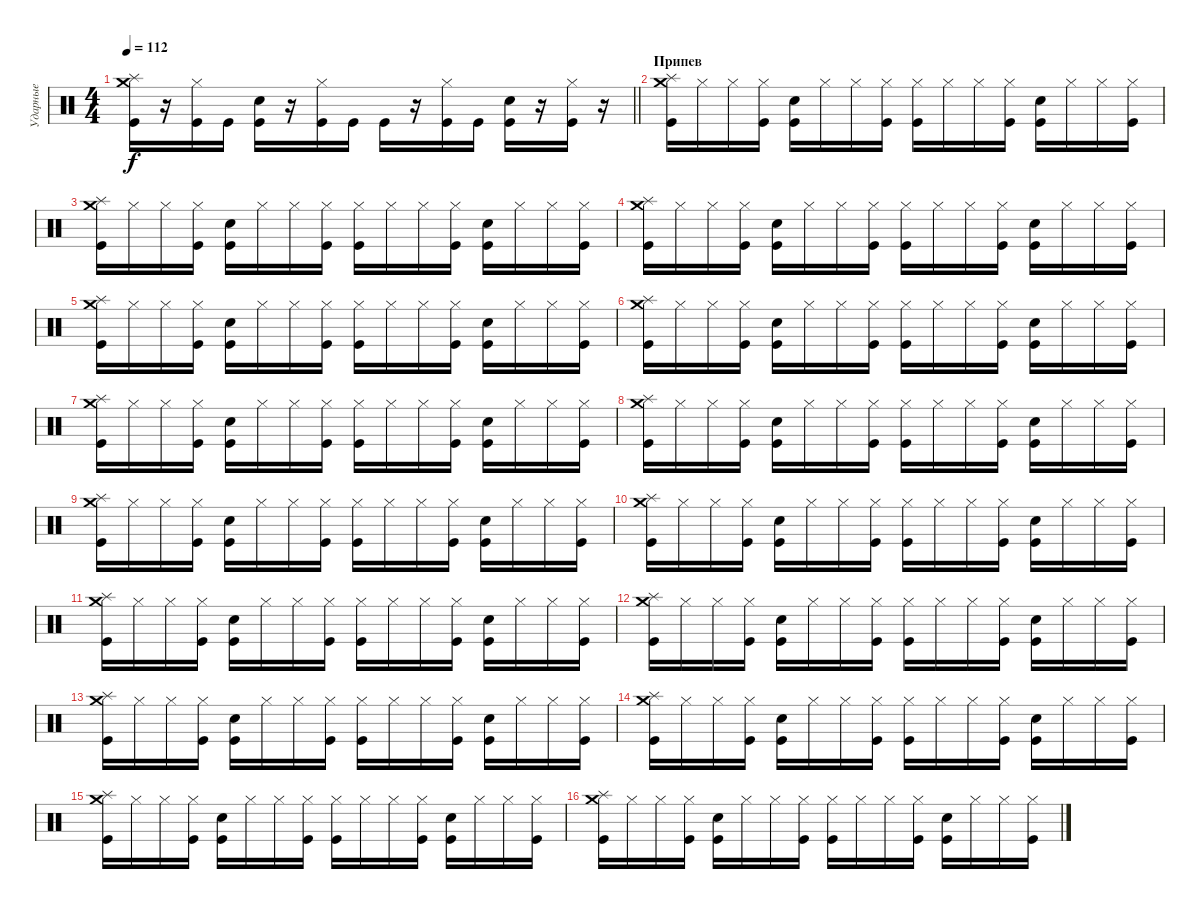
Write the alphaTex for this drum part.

\track ("Ударные" "Ударные") {instrument percussion}
\staff {score}
\articulation defaults
\ts (4 4)
\tempo 112
\clef neutral
\barLineRight lightlight
\ks c
("Splash (hit)" "Crash medium (hit)" "Kick (hit)").16{dy f} r.16 ("Hi-Hat (closed)" "Kick (hit)").16 "Kick (hit)".16 ("Snare (hit) 2" "Kick (hit)").16 r.16 ("Hi-Hat (closed)" "Kick (hit)").16 "Kick (hit)".16 "Kick (hit)".16 r.16 ("Hi-Hat (closed)" "Kick (hit)").16 "Kick (hit)".16 ("Snare (hit) 2" "Kick (hit)").16 r.16 ("Hi-Hat (closed)" "Kick (hit)").16 r.16 |
\section ("" "Припев")
("Splash (hit)" "Crash medium (hit)" "Kick (hit)").16 "Hi-Hat (closed)".16 "Hi-Hat (closed)".16 ("Hi-Hat (closed)" "Kick (hit)").16 ("Snare (hit) 2" "Kick (hit)").16 "Hi-Hat (closed)".16 "Hi-Hat (closed)".16 ("Hi-Hat (closed)" "Kick (hit)").16 ("Hi-Hat (closed)" "Kick (hit)").16 "Hi-Hat (closed)".16 "Hi-Hat (closed)".16 ("Hi-Hat (closed)" "Kick (hit)").16 ("Snare (hit) 2" "Kick (hit)").16 "Hi-Hat (closed)".16 "Hi-Hat (closed)".16 ("Hi-Hat (closed)" "Kick (hit)").16 |
("Splash (hit)" "Crash medium (hit)" "Kick (hit)").16 "Hi-Hat (closed)".16 "Hi-Hat (closed)".16 ("Hi-Hat (closed)" "Kick (hit)").16 ("Snare (hit) 2" "Kick (hit)").16 "Hi-Hat (closed)".16 "Hi-Hat (closed)".16 ("Hi-Hat (closed)" "Kick (hit)").16 ("Hi-Hat (closed)" "Kick (hit)").16 "Hi-Hat (closed)".16 "Hi-Hat (closed)".16 ("Hi-Hat (closed)" "Kick (hit)").16 ("Snare (hit) 2" "Kick (hit)").16 "Hi-Hat (closed)".16 "Hi-Hat (closed)".16 ("Hi-Hat (closed)" "Kick (hit)").16 |
("Splash (hit)" "Crash medium (hit)" "Kick (hit)").16 "Hi-Hat (closed)".16 "Hi-Hat (closed)".16 ("Hi-Hat (closed)" "Kick (hit)").16 ("Snare (hit) 2" "Kick (hit)").16 "Hi-Hat (closed)".16 "Hi-Hat (closed)".16 ("Hi-Hat (closed)" "Kick (hit)").16 ("Hi-Hat (closed)" "Kick (hit)").16 "Hi-Hat (closed)".16 "Hi-Hat (closed)".16 ("Hi-Hat (closed)" "Kick (hit)").16 ("Snare (hit) 2" "Kick (hit)").16 "Hi-Hat (closed)".16 "Hi-Hat (closed)".16 ("Hi-Hat (closed)" "Kick (hit)").16 |
("Splash (hit)" "Crash medium (hit)" "Kick (hit)").16 "Hi-Hat (closed)".16 "Hi-Hat (closed)".16 ("Hi-Hat (closed)" "Kick (hit)").16 ("Snare (hit) 2" "Kick (hit)").16 "Hi-Hat (closed)".16 "Hi-Hat (closed)".16 ("Hi-Hat (closed)" "Kick (hit)").16 ("Hi-Hat (closed)" "Kick (hit)").16 "Hi-Hat (closed)".16 "Hi-Hat (closed)".16 ("Hi-Hat (closed)" "Kick (hit)").16 ("Snare (hit) 2" "Kick (hit)").16 "Hi-Hat (closed)".16 "Hi-Hat (closed)".16 ("Hi-Hat (closed)" "Kick (hit)").16 |
("Splash (hit)" "Crash medium (hit)" "Kick (hit)").16 "Hi-Hat (closed)".16 "Hi-Hat (closed)".16 ("Hi-Hat (closed)" "Kick (hit)").16 ("Snare (hit) 2" "Kick (hit)").16 "Hi-Hat (closed)".16 "Hi-Hat (closed)".16 ("Hi-Hat (closed)" "Kick (hit)").16 ("Hi-Hat (closed)" "Kick (hit)").16 "Hi-Hat (closed)".16 "Hi-Hat (closed)".16 ("Hi-Hat (closed)" "Kick (hit)").16 ("Snare (hit) 2" "Kick (hit)").16 "Hi-Hat (closed)".16 "Hi-Hat (closed)".16 ("Hi-Hat (closed)" "Kick (hit)").16 |
("Splash (hit)" "Crash medium (hit)" "Kick (hit)").16 "Hi-Hat (closed)".16 "Hi-Hat (closed)".16 ("Hi-Hat (closed)" "Kick (hit)").16 ("Snare (hit) 2" "Kick (hit)").16 "Hi-Hat (closed)".16 "Hi-Hat (closed)".16 ("Hi-Hat (closed)" "Kick (hit)").16 ("Hi-Hat (closed)" "Kick (hit)").16 "Hi-Hat (closed)".16 "Hi-Hat (closed)".16 ("Hi-Hat (closed)" "Kick (hit)").16 ("Snare (hit) 2" "Kick (hit)").16 "Hi-Hat (closed)".16 "Hi-Hat (closed)".16 ("Hi-Hat (closed)" "Kick (hit)").16 |
("Splash (hit)" "Crash medium (hit)" "Kick (hit)").16 "Hi-Hat (closed)".16 "Hi-Hat (closed)".16 ("Hi-Hat (closed)" "Kick (hit)").16 ("Snare (hit) 2" "Kick (hit)").16 "Hi-Hat (closed)".16 "Hi-Hat (closed)".16 ("Hi-Hat (closed)" "Kick (hit)").16 ("Hi-Hat (closed)" "Kick (hit)").16 "Hi-Hat (closed)".16 "Hi-Hat (closed)".16 ("Hi-Hat (closed)" "Kick (hit)").16 ("Snare (hit) 2" "Kick (hit)").16 "Hi-Hat (closed)".16 "Hi-Hat (closed)".16 ("Hi-Hat (closed)" "Kick (hit)").16 |
("Splash (hit)" "Crash medium (hit)" "Kick (hit)").16 "Hi-Hat (closed)".16 "Hi-Hat (closed)".16 ("Hi-Hat (closed)" "Kick (hit)").16 ("Snare (hit) 2" "Kick (hit)").16 "Hi-Hat (closed)".16 "Hi-Hat (closed)".16 ("Hi-Hat (closed)" "Kick (hit)").16 ("Hi-Hat (closed)" "Kick (hit)").16 "Hi-Hat (closed)".16 "Hi-Hat (closed)".16 ("Hi-Hat (closed)" "Kick (hit)").16 ("Snare (hit) 2" "Kick (hit)").16 "Hi-Hat (closed)".16 "Hi-Hat (closed)".16 ("Hi-Hat (closed)" "Kick (hit)").16 |
("Splash (hit)" "Crash medium (hit)" "Kick (hit)").16 "Hi-Hat (closed)".16 "Hi-Hat (closed)".16 ("Hi-Hat (closed)" "Kick (hit)").16 ("Snare (hit) 2" "Kick (hit)").16 "Hi-Hat (closed)".16 "Hi-Hat (closed)".16 ("Hi-Hat (closed)" "Kick (hit)").16 ("Hi-Hat (closed)" "Kick (hit)").16 "Hi-Hat (closed)".16 "Hi-Hat (closed)".16 ("Hi-Hat (closed)" "Kick (hit)").16 ("Snare (hit) 2" "Kick (hit)").16 "Hi-Hat (closed)".16 "Hi-Hat (closed)".16 ("Hi-Hat (closed)" "Kick (hit)").16 |
("Splash (hit)" "Crash medium (hit)" "Kick (hit)").16 "Hi-Hat (closed)".16 "Hi-Hat (closed)".16 ("Hi-Hat (closed)" "Kick (hit)").16 ("Snare (hit) 2" "Kick (hit)").16 "Hi-Hat (closed)".16 "Hi-Hat (closed)".16 ("Hi-Hat (closed)" "Kick (hit)").16 ("Hi-Hat (closed)" "Kick (hit)").16 "Hi-Hat (closed)".16 "Hi-Hat (closed)".16 ("Hi-Hat (closed)" "Kick (hit)").16 ("Snare (hit) 2" "Kick (hit)").16 "Hi-Hat (closed)".16 "Hi-Hat (closed)".16 ("Hi-Hat (closed)" "Kick (hit)").16 |
("Splash (hit)" "Crash medium (hit)" "Kick (hit)").16 "Hi-Hat (closed)".16 "Hi-Hat (closed)".16 ("Hi-Hat (closed)" "Kick (hit)").16 ("Snare (hit) 2" "Kick (hit)").16 "Hi-Hat (closed)".16 "Hi-Hat (closed)".16 ("Hi-Hat (closed)" "Kick (hit)").16 ("Hi-Hat (closed)" "Kick (hit)").16 "Hi-Hat (closed)".16 "Hi-Hat (closed)".16 ("Hi-Hat (closed)" "Kick (hit)").16 ("Snare (hit) 2" "Kick (hit)").16 "Hi-Hat (closed)".16 "Hi-Hat (closed)".16 ("Hi-Hat (closed)" "Kick (hit)").16 |
("Splash (hit)" "Crash medium (hit)" "Kick (hit)").16 "Hi-Hat (closed)".16 "Hi-Hat (closed)".16 ("Hi-Hat (closed)" "Kick (hit)").16 ("Snare (hit) 2" "Kick (hit)").16 "Hi-Hat (closed)".16 "Hi-Hat (closed)".16 ("Hi-Hat (closed)" "Kick (hit)").16 ("Hi-Hat (closed)" "Kick (hit)").16 "Hi-Hat (closed)".16 "Hi-Hat (closed)".16 ("Hi-Hat (closed)" "Kick (hit)").16 ("Snare (hit) 2" "Kick (hit)").16 "Hi-Hat (closed)".16 "Hi-Hat (closed)".16 ("Hi-Hat (closed)" "Kick (hit)").16 |
("Splash (hit)" "Crash medium (hit)" "Kick (hit)").16 "Hi-Hat (closed)".16 "Hi-Hat (closed)".16 ("Hi-Hat (closed)" "Kick (hit)").16 ("Snare (hit) 2" "Kick (hit)").16 "Hi-Hat (closed)".16 "Hi-Hat (closed)".16 ("Hi-Hat (closed)" "Kick (hit)").16 ("Hi-Hat (closed)" "Kick (hit)").16 "Hi-Hat (closed)".16 "Hi-Hat (closed)".16 ("Hi-Hat (closed)" "Kick (hit)").16 ("Snare (hit) 2" "Kick (hit)").16 "Hi-Hat (closed)".16 "Hi-Hat (closed)".16 ("Hi-Hat (closed)" "Kick (hit)").16 |
("Splash (hit)" "Crash medium (hit)" "Kick (hit)").16 "Hi-Hat (closed)".16 "Hi-Hat (closed)".16 ("Hi-Hat (closed)" "Kick (hit)").16 ("Snare (hit) 2" "Kick (hit)").16 "Hi-Hat (closed)".16 "Hi-Hat (closed)".16 ("Hi-Hat (closed)" "Kick (hit)").16 ("Hi-Hat (closed)" "Kick (hit)").16 "Hi-Hat (closed)".16 "Hi-Hat (closed)".16 ("Hi-Hat (closed)" "Kick (hit)").16 ("Snare (hit) 2" "Kick (hit)").16 "Hi-Hat (closed)".16 "Hi-Hat (closed)".16 ("Hi-Hat (closed)" "Kick (hit)").16 |
("Splash (hit)" "Crash medium (hit)" "Kick (hit)").16 "Hi-Hat (closed)".16 "Hi-Hat (closed)".16 ("Hi-Hat (closed)" "Kick (hit)").16 ("Snare (hit) 2" "Kick (hit)").16 "Hi-Hat (closed)".16 "Hi-Hat (closed)".16 ("Hi-Hat (closed)" "Kick (hit)").16 ("Hi-Hat (closed)" "Kick (hit)").16 "Hi-Hat (closed)".16 "Hi-Hat (closed)".16 ("Hi-Hat (closed)" "Kick (hit)").16 ("Snare (hit) 2" "Kick (hit)").16 "Hi-Hat (closed)".16 "Hi-Hat (closed)".16 ("Hi-Hat (closed)" "Kick (hit)").16
